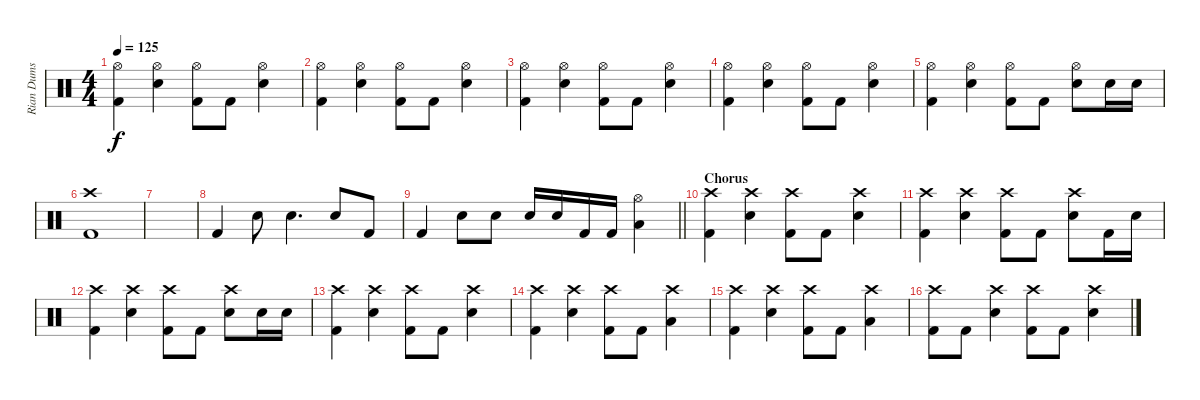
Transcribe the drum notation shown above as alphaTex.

\track ("Rian Dums" "Rian Dums") {instrument percussion}
\staff {score}
\articulation defaults
\ts (4 4)
\tempo 125
\clef neutral
\ks c
("Hi-Hat (open)" "Kick (hit) 2").4{dy f} ("Hi-Hat (open)" "Snare (hit) 2").4 ("Hi-Hat (open)" "Kick (hit) 2").8 "Kick (hit) 2".8 ("Hi-Hat (open)" "Snare (hit) 2").4 |
("Hi-Hat (open)" "Kick (hit) 2").4 ("Hi-Hat (open)" "Snare (hit) 2").4 ("Hi-Hat (open)" "Kick (hit) 2").8 "Kick (hit) 2".8 ("Hi-Hat (open)" "Snare (hit) 2").4 |
("Hi-Hat (open)" "Kick (hit) 2").4 ("Hi-Hat (open)" "Snare (hit) 2").4 ("Hi-Hat (open)" "Kick (hit) 2").8 "Kick (hit) 2".8 ("Hi-Hat (open)" "Snare (hit) 2").4 |
("Hi-Hat (open)" "Kick (hit) 2").4 ("Hi-Hat (open)" "Snare (hit) 2").4 ("Hi-Hat (open)" "Kick (hit) 2").8 "Kick (hit) 2".8 ("Hi-Hat (open)" "Snare (hit) 2").4 |
("Hi-Hat (open)" "Kick (hit) 2").4 ("Hi-Hat (open)" "Snare (hit) 2").4 ("Hi-Hat (open)" "Kick (hit) 2").8 "Kick (hit) 2".8 ("Hi-Hat (open)" "Snare (hit) 2").8 "Snare (hit) 2".16 "Snare (hit) 2".16 |
("Crash high (hit)" "Kick (hit) 2").1 |
|
"Kick (hit) 2".4 "Snare (hit) 2".8 "Snare (hit) 2".4{d} "Snare (hit) 2".8 "Kick (hit) 2".8 |
\barLineRight lightlight "Kick (hit) 2".4 "Snare (hit) 2".8 "Snare (hit) 2".8 "Snare (hit) 2".16 "Snare (hit) 2".16 "Kick (hit) 2".16 "Kick (hit) 2".16
("Hi-Hat (open)" "Low Floor Tom (hit)").4 |
\section ("" "Chorus")
("Crash high (hit)" "Kick (hit) 2").4 ("Crash high (hit)" "Snare (hit) 2").4 ("Crash high (hit)" "Kick (hit) 2").8 "Kick (hit) 2".8 ("Crash high (hit)" "Snare (hit) 2").4 |
("Crash high (hit)" "Kick (hit) 2").4 ("Crash high (hit)" "Snare (hit) 2").4 ("Crash high (hit)" "Kick (hit) 2").8 "Kick (hit) 2".8 ("Crash high (hit)" "Snare (hit) 2").8 "Kick (hit) 2".16 "Snare (hit) 2".16 |
("Crash high (hit)" "Kick (hit) 2").4 ("Crash high (hit)" "Snare (hit) 2").4 ("Crash high (hit)" "Kick (hit) 2").8 "Kick (hit) 2".8 ("Crash high (hit)" "Snare (hit) 2").8 "Snare (hit) 2".16 "Snare (hit) 2".16 |
("Crash high (hit)" "Kick (hit) 2").4 ("Crash high (hit)" "Snare (hit) 2").4 ("Crash high (hit)" "Kick (hit) 2").8 "Kick (hit) 2".8 ("Crash high (hit)" "Snare (hit) 2").4 |
("Crash high (hit)" "Kick (hit) 2").4 ("Crash high (hit)" "Snare (hit) 2").4 ("Crash high (hit)" "Kick (hit) 2").8 "Kick (hit) 2".8 ("Crash high (hit)" "Low Floor Tom (hit)").4 |
("Crash high (hit)" "Kick (hit) 2").4 ("Crash high (hit)" "Snare (hit) 2").4 ("Crash high (hit)" "Kick (hit) 2").8 "Kick (hit) 2".8 ("Crash high (hit)" "Low Floor Tom (hit)").4 |
("Crash high (hit)" "Kick (hit) 2").8 "Kick (hit) 2".8 ("Crash high (hit)" "Snare (hit) 2").4 ("Crash high (hit)" "Kick (hit) 2").8 "Kick (hit) 2".8 ("Crash high (hit)" "Snare (hit) 2").4
